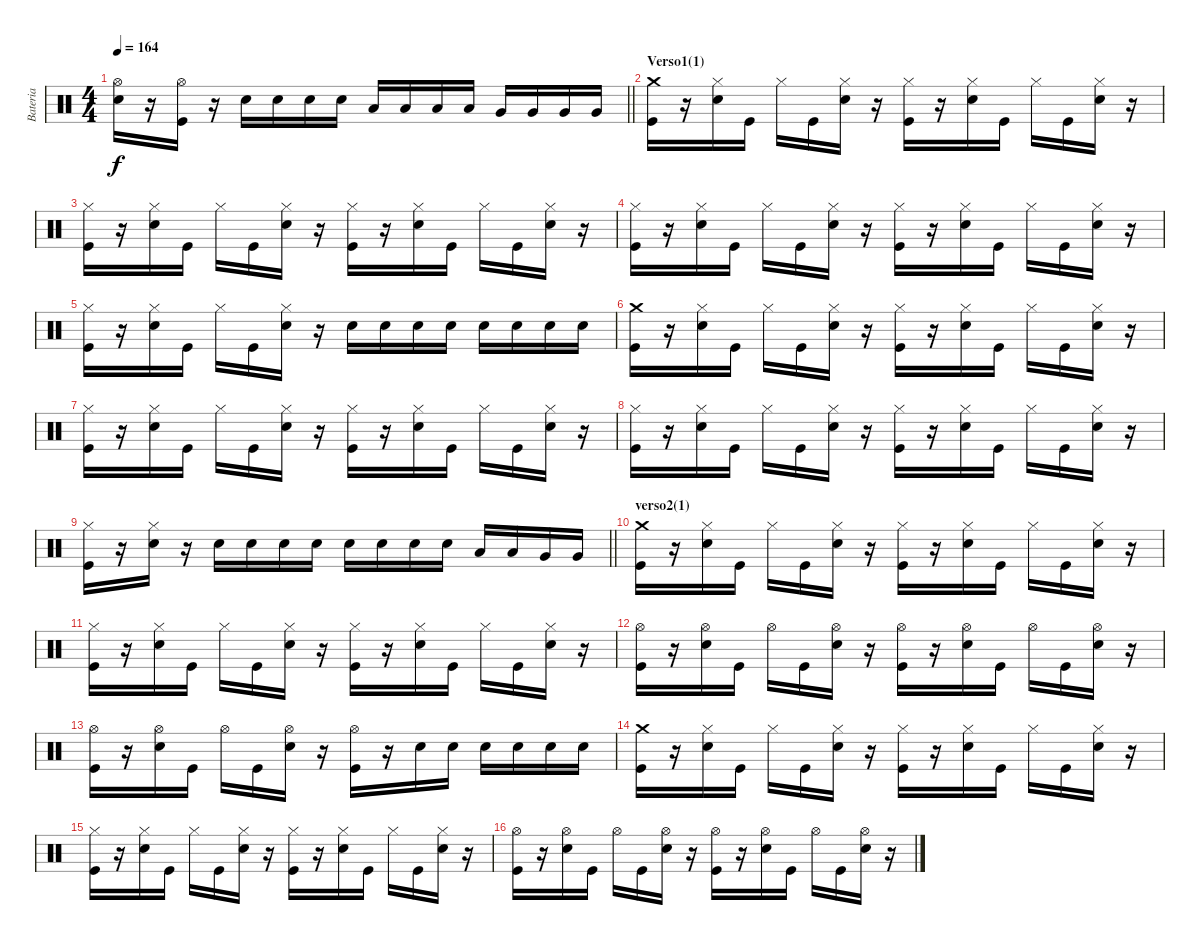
\track ("Bateria" "Bateria") {instrument percussion}
\staff {score}
\articulation defaults
\ts (4 4)
\tempo 164
\clef neutral
\barLineRight lightlight
\ks c
("Hi-Hat (open)" "Snare (hit) 2").16{dy f} r.16 ("Hi-Hat (open)" "Kick (hit)").16 r.16 "Snare (hit) 2".16 "Snare (hit) 2".16 "Snare (hit) 2".16 "Snare (hit) 2".16 "Low Tom (hit)".16 "Low Tom (hit)".16 "Low Tom (hit)".16 "Low Tom (hit)".16 "Very Low Tom (hit)".16 "Very Low Tom (hit)".16 "Very Low Tom (hit)".16 "Very Low Tom (hit)".16 |
\section ("" "Verso1(1)")
("Crash medium (hit)" "Kick (hit)").16 r.16 ("Hi-Hat (closed)" "Snare (hit) 2").16 "Kick (hit)".16 "Hi-Hat (closed)".16 "Kick (hit)".16 ("Hi-Hat (closed)" "Snare (hit) 2").16 r.16 ("Hi-Hat (closed)" "Kick (hit)").16 r.16 ("Hi-Hat (closed)" "Snare (hit) 2").16 "Kick (hit)".16 "Hi-Hat (closed)".16 "Kick (hit)".16 ("Hi-Hat (closed)" "Snare (hit) 2").16 r.16 |
("Hi-Hat (closed)" "Kick (hit)").16 r.16 ("Hi-Hat (closed)" "Snare (hit) 2").16 "Kick (hit)".16 "Hi-Hat (closed)".16 "Kick (hit)".16 ("Hi-Hat (closed)" "Snare (hit) 2").16 r.16 ("Hi-Hat (closed)" "Kick (hit)").16 r.16 ("Hi-Hat (closed)" "Snare (hit) 2").16 "Kick (hit)".16 "Hi-Hat (closed)".16 "Kick (hit)".16 ("Hi-Hat (closed)" "Snare (hit) 2").16 r.16 |
("Hi-Hat (closed)" "Kick (hit)").16 r.16 ("Hi-Hat (closed)" "Snare (hit) 2").16 "Kick (hit)".16 "Hi-Hat (closed)".16 "Kick (hit)".16 ("Hi-Hat (closed)" "Snare (hit) 2").16 r.16 ("Hi-Hat (closed)" "Kick (hit)").16 r.16 ("Hi-Hat (closed)" "Snare (hit) 2").16 "Kick (hit)".16 "Hi-Hat (closed)".16 "Kick (hit)".16 ("Hi-Hat (closed)" "Snare (hit) 2").16 r.16 |
("Hi-Hat (closed)" "Kick (hit)").16 r.16 ("Hi-Hat (closed)" "Snare (hit) 2").16 "Kick (hit)".16 "Hi-Hat (closed)".16 "Kick (hit)".16 ("Hi-Hat (closed)" "Snare (hit) 2").16 r.16 "Snare (hit) 2".16 "Snare (hit) 2".16 "Snare (hit) 2".16 "Snare (hit) 2".16 "Snare (hit) 2".16 "Snare (hit) 2".16 "Snare (hit) 2".16 "Snare (hit) 2".16 |
("Crash medium (hit)" "Kick (hit)").16 r.16 ("Hi-Hat (closed)" "Snare (hit) 2").16 "Kick (hit)".16 "Hi-Hat (closed)".16 "Kick (hit)".16 ("Hi-Hat (closed)" "Snare (hit) 2").16 r.16 ("Hi-Hat (closed)" "Kick (hit)").16 r.16 ("Hi-Hat (closed)" "Snare (hit) 2").16 "Kick (hit)".16 "Hi-Hat (closed)".16 "Kick (hit)".16 ("Hi-Hat (closed)" "Snare (hit) 2").16 r.16 |
("Hi-Hat (closed)" "Kick (hit)").16 r.16 ("Hi-Hat (closed)" "Snare (hit) 2").16 "Kick (hit)".16 "Hi-Hat (closed)".16 "Kick (hit)".16 ("Hi-Hat (closed)" "Snare (hit) 2").16 r.16 ("Hi-Hat (closed)" "Kick (hit)").16 r.16 ("Hi-Hat (closed)" "Snare (hit) 2").16 "Kick (hit)".16 "Hi-Hat (closed)".16 "Kick (hit)".16 ("Hi-Hat (closed)" "Snare (hit) 2").16 r.16 |
("Hi-Hat (closed)" "Kick (hit)").16 r.16 ("Hi-Hat (closed)" "Snare (hit) 2").16 "Kick (hit)".16 "Hi-Hat (closed)".16 "Kick (hit)".16 ("Hi-Hat (closed)" "Snare (hit) 2").16 r.16 ("Hi-Hat (closed)" "Kick (hit)").16 r.16 ("Hi-Hat (closed)" "Snare (hit) 2").16 "Kick (hit)".16 "Hi-Hat (closed)".16 "Kick (hit)".16 ("Hi-Hat (closed)" "Snare (hit) 2").16 r.16 |
\barLineRight lightlight
("Hi-Hat (closed)" "Kick (hit)").16 r.16 ("Hi-Hat (closed)" "Snare (hit) 2").16 r.16 "Snare (hit) 2".16 "Snare (hit) 2".16 "Snare (hit) 2".16 "Snare (hit) 2".16 "Snare (hit) 2".16 "Snare (hit) 2".16 "Snare (hit) 2".16 "Snare (hit) 2".16 "Low Tom (hit)".16 "Low Tom (hit)".16 "Very Low Tom (hit)".16 "Very Low Tom (hit)".16 |
\section ("" "verso2(1)")
("Crash medium (hit)" "Kick (hit)").16 r.16 ("Hi-Hat (closed)" "Snare (hit) 2").16 "Kick (hit)".16 "Hi-Hat (closed)".16 "Kick (hit)".16 ("Hi-Hat (closed)" "Snare (hit) 2").16 r.16 ("Hi-Hat (closed)" "Kick (hit)").16 r.16 ("Hi-Hat (closed)" "Snare (hit) 2").16 "Kick (hit)".16 "Hi-Hat (closed)".16 "Kick (hit)".16 ("Hi-Hat (closed)" "Snare (hit) 2").16 r.16 |
("Hi-Hat (closed)" "Kick (hit)").16 r.16 ("Hi-Hat (closed)" "Snare (hit) 2").16 "Kick (hit)".16 "Hi-Hat (closed)".16 "Kick (hit)".16 ("Hi-Hat (closed)" "Snare (hit) 2").16 r.16 ("Hi-Hat (closed)" "Kick (hit)").16 r.16 ("Hi-Hat (closed)" "Snare (hit) 2").16 "Kick (hit)".16 "Hi-Hat (closed)".16 "Kick (hit)".16 ("Hi-Hat (closed)" "Snare (hit) 2").16 r.16 |
("Hi-Hat (open)" "Kick (hit)").16 r.16 ("Hi-Hat (open)" "Snare (hit) 2").16 "Kick (hit)".16 "Hi-Hat (open)".16 "Kick (hit)".16 ("Hi-Hat (open)" "Snare (hit) 2").16 r.16 ("Hi-Hat (open)" "Kick (hit)").16 r.16 ("Hi-Hat (open)" "Snare (hit) 2").16 "Kick (hit)".16 "Hi-Hat (open)".16 "Kick (hit)".16 ("Hi-Hat (open)" "Snare (hit) 2").16 r.16 |
("Hi-Hat (open)" "Kick (hit)").16 r.16 ("Hi-Hat (open)" "Snare (hit) 2").16 "Kick (hit)".16 "Hi-Hat (open)".16 "Kick (hit)".16 ("Hi-Hat (open)" "Snare (hit) 2").16 r.16 ("Hi-Hat (open)" "Kick (hit)").16 r.16 "Snare (hit) 2".16 "Snare (hit) 2".16 "Snare (hit) 2".16 "Snare (hit) 2".16 "Snare (hit) 2".16 "Snare (hit) 2".16 |
("Crash medium (hit)" "Kick (hit)").16 r.16 ("Hi-Hat (closed)" "Snare (hit) 2").16 "Kick (hit)".16 "Hi-Hat (closed)".16 "Kick (hit)".16 ("Hi-Hat (closed)" "Snare (hit) 2").16 r.16 ("Hi-Hat (closed)" "Kick (hit)").16 r.16 ("Hi-Hat (closed)" "Snare (hit) 2").16 "Kick (hit)".16 "Hi-Hat (closed)".16 "Kick (hit)".16 ("Hi-Hat (closed)" "Snare (hit) 2").16 r.16 |
("Hi-Hat (closed)" "Kick (hit)").16 r.16 ("Hi-Hat (closed)" "Snare (hit) 2").16 "Kick (hit)".16 "Hi-Hat (closed)".16 "Kick (hit)".16 ("Hi-Hat (closed)" "Snare (hit) 2").16 r.16 ("Hi-Hat (closed)" "Kick (hit)").16 r.16 ("Hi-Hat (closed)" "Snare (hit) 2").16 "Kick (hit)".16 "Hi-Hat (closed)".16 "Kick (hit)".16 ("Hi-Hat (closed)" "Snare (hit) 2").16 r.16 |
("Hi-Hat (open)" "Kick (hit)").16 r.16 ("Hi-Hat (open)" "Snare (hit) 2").16 "Kick (hit)".16 "Hi-Hat (open)".16 "Kick (hit)".16 ("Hi-Hat (open)" "Snare (hit) 2").16 r.16 ("Hi-Hat (open)" "Kick (hit)").16 r.16 ("Hi-Hat (open)" "Snare (hit) 2").16 "Kick (hit)".16 "Hi-Hat (open)".16 "Kick (hit)".16 ("Hi-Hat (open)" "Snare (hit) 2").16 r.16
